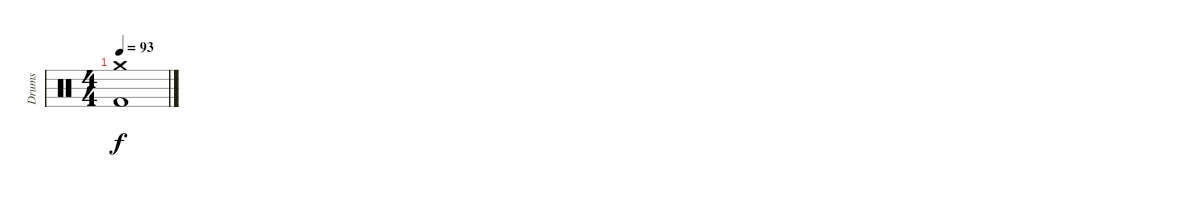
\track ("Drums" "Drums") {instrument percussion}
\staff {score}
\articulation defaults
\ts (4 4)
\tempo 93
\clef neutral
\ks c
("Crash medium (hit)" "Kick (hit) 2").1{dy f}
